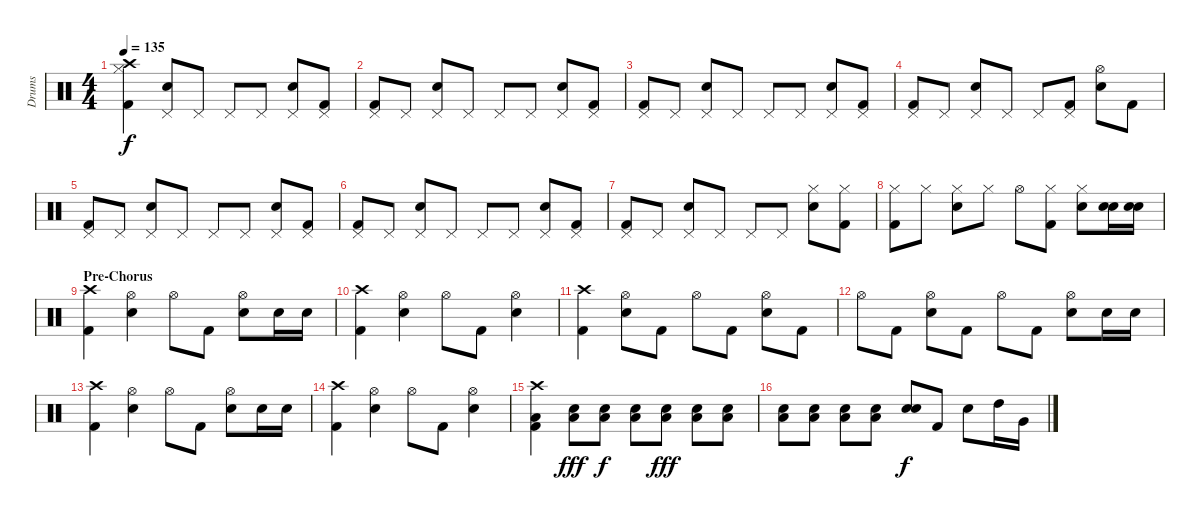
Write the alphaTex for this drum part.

\track ("Drums" "Drums") {instrument percussion}
\staff {score}
\articulation defaults
\ts (4 4)
\tempo 135
\clef neutral
\ks c
("Crash high (hit)" "Hi-Hat (closed)" "Kick (hit) 2").4{dy f} ("Pedal Hi-Hat (hit)" "Snare (hit) 2").8 "Pedal Hi-Hat (hit)".8 "Pedal Hi-Hat (hit)".8 "Pedal Hi-Hat (hit)".8 ("Pedal Hi-Hat (hit)" "Snare (hit) 2").8 ("Pedal Hi-Hat (hit)" "Kick (hit) 2").8 |
("Pedal Hi-Hat (hit)" "Kick (hit) 2").8 "Pedal Hi-Hat (hit)".8 ("Pedal Hi-Hat (hit)" "Snare (hit) 2").8 "Pedal Hi-Hat (hit)".8 "Pedal Hi-Hat (hit)".8 "Pedal Hi-Hat (hit)".8 ("Pedal Hi-Hat (hit)" "Snare (hit) 2").8 ("Pedal Hi-Hat (hit)" "Kick (hit) 2").8 |
("Pedal Hi-Hat (hit)" "Kick (hit) 2").8 "Pedal Hi-Hat (hit)".8 ("Pedal Hi-Hat (hit)" "Snare (hit) 2").8 "Pedal Hi-Hat (hit)".8 "Pedal Hi-Hat (hit)".8 "Pedal Hi-Hat (hit)".8 ("Pedal Hi-Hat (hit)" "Snare (hit) 2").8 ("Pedal Hi-Hat (hit)" "Kick (hit) 2").8 |
("Pedal Hi-Hat (hit)" "Kick (hit) 2").8 "Pedal Hi-Hat (hit)".8 ("Pedal Hi-Hat (hit)" "Snare (hit) 2").8 "Pedal Hi-Hat (hit)".8 "Pedal Hi-Hat (hit)".8 ("Pedal Hi-Hat (hit)" "Kick (hit) 2").8 ("Hi-Hat (open)" "Snare (hit) 2").8 "Kick (hit) 2".8 |
("Pedal Hi-Hat (hit)" "Kick (hit) 2").8 "Pedal Hi-Hat (hit)".8 ("Pedal Hi-Hat (hit)" "Snare (hit) 2").8 "Pedal Hi-Hat (hit)".8 "Pedal Hi-Hat (hit)".8 "Pedal Hi-Hat (hit)".8 ("Pedal Hi-Hat (hit)" "Snare (hit) 2").8 ("Pedal Hi-Hat (hit)" "Kick (hit) 2").8 |
("Pedal Hi-Hat (hit)" "Kick (hit) 2").8 "Pedal Hi-Hat (hit)".8 ("Pedal Hi-Hat (hit)" "Snare (hit) 2").8 "Pedal Hi-Hat (hit)".8 "Pedal Hi-Hat (hit)".8 "Pedal Hi-Hat (hit)".8 ("Pedal Hi-Hat (hit)" "Snare (hit) 2").8 ("Pedal Hi-Hat (hit)" "Kick (hit) 2").8 |
("Pedal Hi-Hat (hit)" "Kick (hit) 2").8 "Pedal Hi-Hat (hit)".8 ("Pedal Hi-Hat (hit)" "Snare (hit) 2").8 "Pedal Hi-Hat (hit)".8 "Pedal Hi-Hat (hit)".8 "Pedal Hi-Hat (hit)".8 ("Hi-Hat (closed)" "Snare (hit) 2").8 ("Hi-Hat (closed)" "Kick (hit) 2").8 |
("Hi-Hat (closed)" "Kick (hit) 2").8 "Hi-Hat (closed)".8 ("Hi-Hat (closed)" "Snare (hit) 2").8 "Hi-Hat (closed)".8 "Hi-Hat (open)".8 ("Hi-Hat (closed)" "Kick (hit) 2").8 ("Hi-Hat (closed)" "Snare (hit) 2").8 ("Snare (hit) 2" "Snare (hit) 2").16 ("Snare (hit) 2" "Snare (hit) 2").16 |
\section ("" "Pre-Chorus")
("Crash high (hit)" "Kick (hit) 2").4 ("Hi-Hat (open)" "Snare (hit) 2").4 "Hi-Hat (open)".8 "Kick (hit) 2".8 ("Hi-Hat (open)" "Snare (hit) 2").8 "Snare (hit) 2".16 "Snare (hit) 2".16 |
("Crash high (hit)" "Kick (hit) 2").4 ("Hi-Hat (open)" "Snare (hit) 2").4 "Hi-Hat (open)".8 "Kick (hit) 2".8 ("Hi-Hat (open)" "Snare (hit) 2").4 |
("Crash high (hit)" "Kick (hit) 2").4 ("Hi-Hat (open)" "Snare (hit) 2").8 "Kick (hit) 2".8 "Hi-Hat (open)".8 "Kick (hit) 2".8 ("Hi-Hat (open)" "Snare (hit) 2").8 "Kick (hit) 2".8 |
"Hi-Hat (open)".8 "Kick (hit) 2".8 ("Hi-Hat (open)" "Snare (hit) 2").8 "Kick (hit) 2".8 "Hi-Hat (open)".8 "Kick (hit) 2".8 ("Hi-Hat (open)" "Snare (hit) 2").8 "Snare (hit) 2".16 "Snare (hit) 2".16 |
("Crash high (hit)" "Kick (hit) 2").4 ("Hi-Hat (open)" "Snare (hit) 2").4 "Hi-Hat (open)".8 "Kick (hit) 2".8 ("Hi-Hat (open)" "Snare (hit) 2").8 "Snare (hit) 2".16 "Snare (hit) 2".16 |
("Crash high (hit)" "Kick (hit) 2").4 ("Hi-Hat (open)" "Snare (hit) 2").4 "Hi-Hat (open)".8 "Kick (hit) 2".8 ("Hi-Hat (open)" "Snare (hit) 2").4 |
("Crash high (hit)" "Low Floor Tom (hit)" "Kick (hit) 2").4 ("Snare (hit) 2" "Low Floor Tom (hit)").8{dy fff} ("Snare (hit) 2" "Low Floor Tom (hit)").8{dy f} ("Snare (hit) 2" "Low Floor Tom (hit)").8 ("Snare (hit) 2" "Low Floor Tom (hit)").8{dy fff} ("Snare (hit) 2" "Low Floor Tom (hit)").8 ("Snare (hit) 2" "Low Floor Tom (hit)").8 |
("Snare (hit) 2" "Low Floor Tom (hit)").8 ("Snare (hit) 2" "Low Floor Tom (hit)").8 ("Snare (hit) 2" "Low Floor Tom (hit)").8 ("Snare (hit) 2" "Low Floor Tom (hit)").8 ("Snare (hit) 2" "Snare (hit) 2").8{dy f} "Kick (hit) 2".8 "Snare (hit) 2".8 "High Tom (hit)".16 "Very Low Tom (hit)".16
